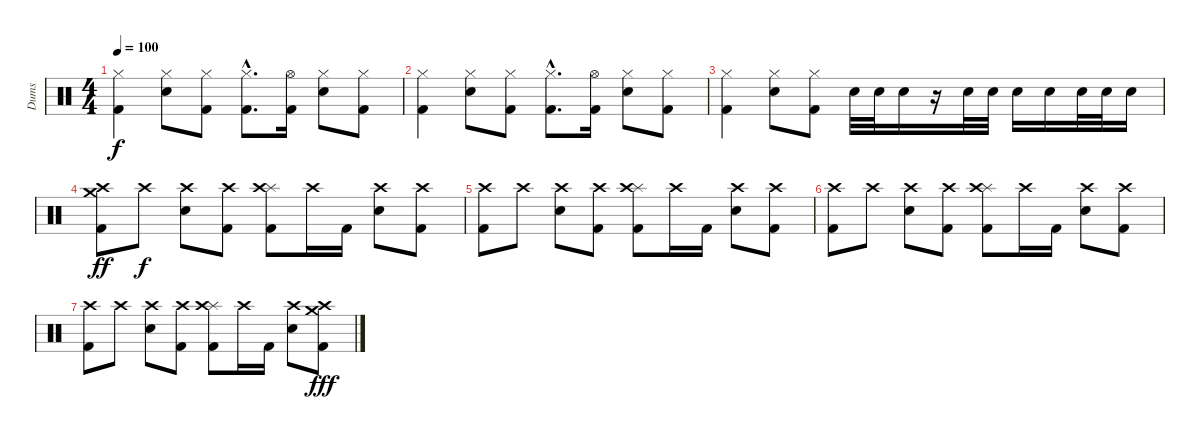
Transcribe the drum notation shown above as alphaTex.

\track ("Dums" "Dums") {instrument percussion}
\staff {score}
\articulation defaults
\ts (4 4)
\tempo 100
\clef neutral
\ks c
("Hi-Hat (closed)" "Kick (hit) 2").4{dy f} ("Hi-Hat (closed)" "Snare (hit) 2").8 ("Hi-Hat (closed)" "Kick (hit) 2").8 ("Hi-Hat (closed)"{hac} "Kick (hit) 2"{hac}).8{d} ("Hi-Hat (open)" "Kick (hit) 2").16 ("Hi-Hat (closed)" "Snare (hit) 2").8 ("Hi-Hat (closed)" "Kick (hit) 2").8 |
("Hi-Hat (closed)" "Kick (hit) 2").4 ("Hi-Hat (closed)" "Snare (hit) 2").8 ("Hi-Hat (closed)" "Kick (hit) 2").8 ("Hi-Hat (closed)"{hac} "Kick (hit) 2"{hac}).8{d} ("Hi-Hat (open)" "Kick (hit) 2").16 ("Hi-Hat (closed)" "Snare (hit) 2").8 ("Hi-Hat (closed)" "Kick (hit) 2").8 |
("Hi-Hat (closed)" "Kick (hit) 2").4 ("Hi-Hat (closed)" "Snare (hit) 2").8 ("Hi-Hat (closed)" "Kick (hit) 2").8 "Electric Snare (hit)".32 "Electric Snare (hit)".32 "Electric Snare (hit)".16 r.16 "Electric Snare (hit)".32 "Electric Snare (hit)".32 "Electric Snare (hit)".16 "Electric Snare (hit)".16 "Electric Snare (hit)".32 "Electric Snare (hit)".32 "Electric Snare (hit)".16 |
("Crash medium (hit)" "Crash high (hit)" "Kick (hit) 2").8{dy ff} "Crash high (hit)".8{dy f} ("Crash high (hit)" "Snare (hit) 2").8 ("Crash high (hit)" "Kick (hit) 2").8 ("Splash (hit)" "Crash high (hit)" "Kick (hit) 2").8 "Crash high (hit)".16 "Kick (hit) 2".16 ("Crash high (hit)" "Snare (hit) 2").8 ("Crash high (hit)" "Kick (hit) 2").8 |
("Crash high (hit)" "Kick (hit) 2").8 "Crash high (hit)".8 ("Crash high (hit)" "Snare (hit) 2").8 ("Crash high (hit)" "Kick (hit) 2").8 ("Splash (hit)" "Crash high (hit)" "Kick (hit) 2").8 "Crash high (hit)".16 "Kick (hit) 2".16 ("Crash high (hit)" "Snare (hit) 2").8 ("Crash high (hit)" "Kick (hit) 2").8 |
("Crash high (hit)" "Kick (hit) 2").8 "Crash high (hit)".8 ("Crash high (hit)" "Snare (hit) 2").8 ("Crash high (hit)" "Kick (hit) 2").8 ("Splash (hit)" "Crash high (hit)" "Kick (hit) 2").8 "Crash high (hit)".16 "Kick (hit) 2".16 ("Crash high (hit)" "Snare (hit) 2").8 ("Crash high (hit)" "Kick (hit) 2").8 |
("Crash high (hit)" "Kick (hit) 2").8 "Crash high (hit)".8 ("Crash high (hit)" "Snare (hit) 2").8 ("Crash high (hit)" "Kick (hit) 2").8 ("Splash (hit)" "Crash high (hit)" "Kick (hit) 2").8 "Crash high (hit)".16 "Kick (hit) 2".16 ("Crash high (hit)" "Snare (hit) 2").8 ("Crash medium (hit)" "Crash high (hit)" "Kick (hit) 2").8{dy fff}
